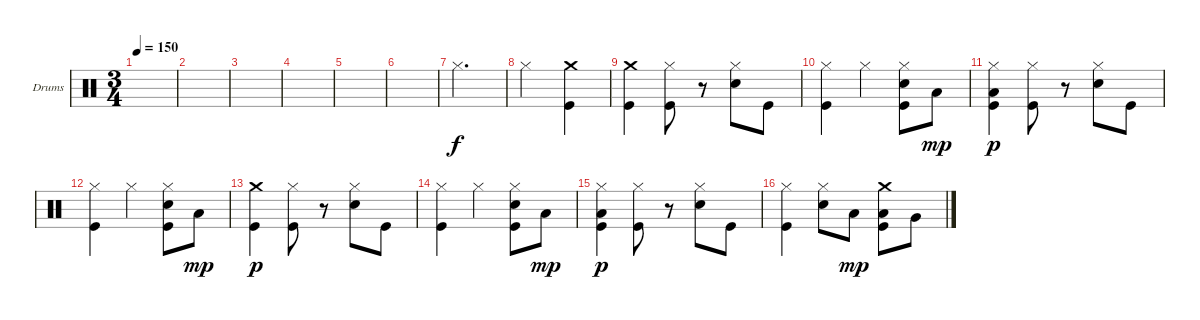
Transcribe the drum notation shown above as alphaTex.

\bracketExtendMode groupsimilarinstruments
\firstSystemTrackNameOrientation horizontal
\otherSystemsTrackNameOrientation horizontal
\track ("Drumkit" "Drums") {instrument percussion}
\staff {score}
\articulation defaults
\ts (3 4)
\tempo 150
\clef neutral
\ks c
|
|
|
|
|
|
"Hi-Hat (closed)".2{d} |
"Hi-Hat (closed)".2 ("Crash medium (hit)" "Kick (hit)").4 |
("Crash medium (hit)" "Kick (hit)").4 ("Kick (hit)" "Hi-Hat (closed)").8 r.8 ("Hi-Hat (closed)" "Snare (hit) 2").8 "Kick (hit)".8 |
("Kick (hit)" "Hi-Hat (closed)").4 "Hi-Hat (closed)".4 ("Kick (hit)" "Hi-Hat (closed)" "Snare (hit) 2").8 "Low Tom (hit)".8{dy mp} |
("Kick (hit)" "Hi-Hat (closed)" "Low Tom (hit)").4{dy p} ("Kick (hit)" "Hi-Hat (closed)").8 r.8 ("Hi-Hat (closed)" "Snare (hit) 2").8 "Kick (hit)".8 |
("Kick (hit)" "Hi-Hat (closed)").4 "Hi-Hat (closed)".4 ("Kick (hit)" "Hi-Hat (closed)" "Snare (hit) 2").8 "Low Tom (hit)".8{dy mp} |
("Crash medium (hit)" "Kick (hit)").4{dy p} ("Kick (hit)" "Hi-Hat (closed)").8 r.8 ("Hi-Hat (closed)" "Snare (hit) 2").8 "Kick (hit)".8 |
("Kick (hit)" "Hi-Hat (closed)").4 "Hi-Hat (closed)".4 ("Kick (hit)" "Hi-Hat (closed)" "Snare (hit) 2").8 "Low Tom (hit)".8{dy mp} |
("Kick (hit)" "Hi-Hat (closed)" "Low Tom (hit)").4{dy p} ("Kick (hit)" "Hi-Hat (closed)").8 r.8 ("Hi-Hat (closed)" "Snare (hit) 2").8 "Kick (hit)".8 |
("Kick (hit)" "Hi-Hat (closed)").4 ("Hi-Hat (closed)" "Snare (hit) 2").8 "Low Tom (hit)".8{dy mp} ("Kick (hit)" "Crash medium (hit)" "Low Tom (hit)").8 "Very Low Tom (hit)".8
